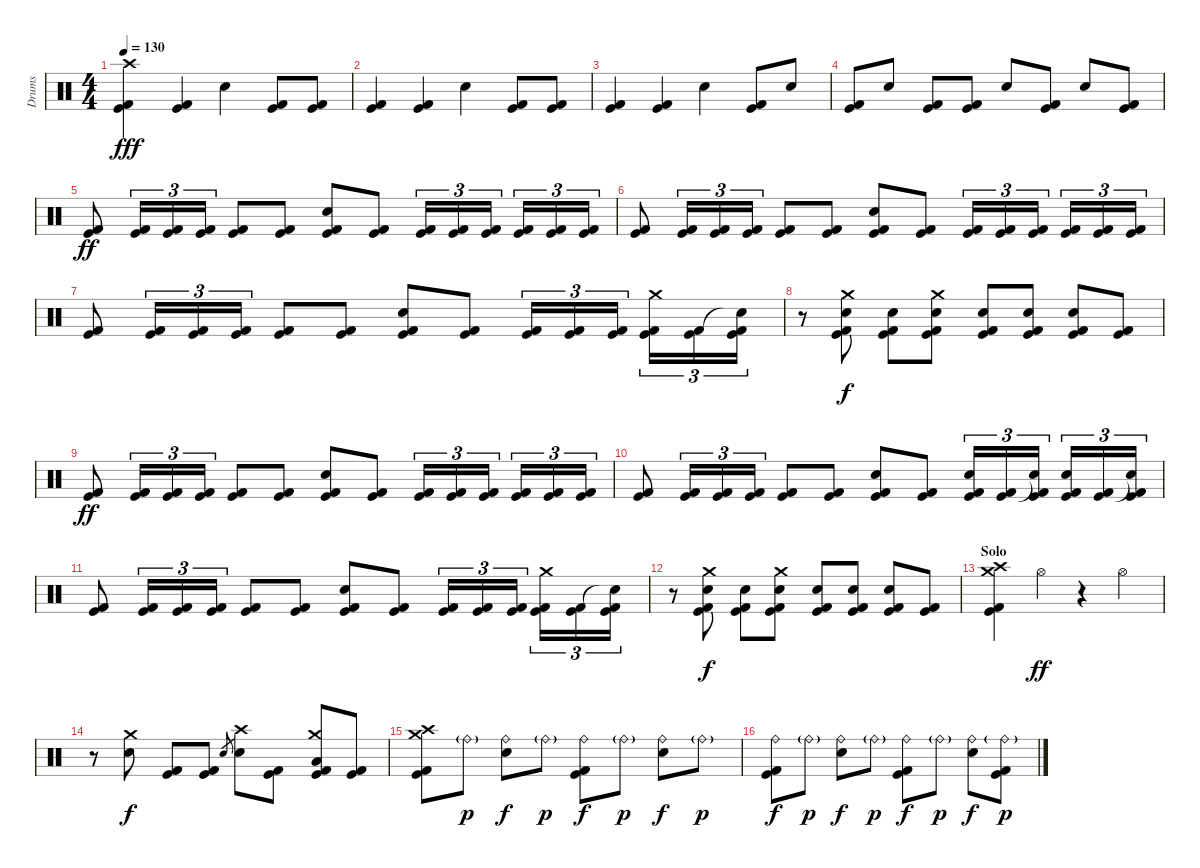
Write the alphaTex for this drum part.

\track ("Drums" "Drums") {instrument percussion}
\staff {score}
\articulation defaults
\ts (4 4)
\tempo 130
\clef neutral
\ks c
("Crash high (hit)" "Kick (hit)" "Kick (hit) 2").4{dy fff} ("Kick (hit)" "Kick (hit) 2").4 "Electric Snare (hit)".4 ("Kick (hit)" "Kick (hit) 2").8 ("Kick (hit)" "Kick (hit) 2").8 |
("Kick (hit)" "Kick (hit) 2").4 ("Kick (hit)" "Kick (hit) 2").4 "Electric Snare (hit)".4 ("Kick (hit)" "Kick (hit) 2").8 ("Kick (hit)" "Kick (hit) 2").8 |
("Kick (hit)" "Kick (hit) 2").4 ("Kick (hit)" "Kick (hit) 2").4 "Electric Snare (hit)".4 ("Kick (hit)" "Kick (hit) 2").8 "Electric Snare (hit)".8 |
("Kick (hit)" "Kick (hit) 2").8 "Electric Snare (hit)".8 ("Kick (hit)" "Kick (hit) 2").8 ("Kick (hit)" "Kick (hit) 2").8 "Electric Snare (hit)".8 ("Kick (hit)" "Kick (hit) 2").8 "Electric Snare (hit)".8 ("Kick (hit)" "Kick (hit) 2").8 |
("Kick (hit)" "Kick (hit) 2").8{dy ff} ("Kick (hit)" "Kick (hit) 2").16{tu (3 2)} ("Kick (hit)" "Kick (hit) 2").16{tu (3 2)} ("Kick (hit)" "Kick (hit) 2").16{tu (3 2)} ("Kick (hit)" "Kick (hit) 2").8 ("Kick (hit)" "Kick (hit) 2").8 ("Electric Snare (hit)" "Kick (hit)" "Kick (hit) 2").8 ("Kick (hit)" "Kick (hit) 2").8 ("Kick (hit)" "Kick (hit) 2").16{tu (3 2)} ("Kick (hit)" "Kick (hit) 2").16{tu (3 2)} ("Kick (hit)" "Kick (hit) 2").16{tu (3 2)} ("Kick (hit)" "Kick (hit) 2").16{tu (3 2)} ("Kick (hit)" "Kick (hit) 2").16{tu (3 2)} ("Kick (hit)" "Kick (hit) 2").16{tu (3 2)} |
("Kick (hit)" "Kick (hit) 2").8 ("Kick (hit)" "Kick (hit) 2").16{tu (3 2)} ("Kick (hit)" "Kick (hit) 2").16{tu (3 2)} ("Kick (hit)" "Kick (hit) 2").16{tu (3 2)} ("Kick (hit)" "Kick (hit) 2").8 ("Kick (hit)" "Kick (hit) 2").8 ("Electric Snare (hit)" "Kick (hit)" "Kick (hit) 2").8 ("Kick (hit)" "Kick (hit) 2").8 ("Kick (hit)" "Kick (hit) 2").16{tu (3 2)} ("Kick (hit)" "Kick (hit) 2").16{tu (3 2)} ("Kick (hit)" "Kick (hit) 2").16{tu (3 2)} ("Kick (hit)" "Kick (hit) 2").16{tu (3 2)} ("Kick (hit)" "Kick (hit) 2").16{tu (3 2)} ("Kick (hit)" "Kick (hit) 2").16{tu (3 2)} |
("Kick (hit)" "Kick (hit) 2").8 ("Kick (hit)" "Kick (hit) 2").16{tu (3 2)} ("Kick (hit)" "Kick (hit) 2").16{tu (3 2)} ("Kick (hit)" "Kick (hit) 2").16{tu (3 2)} ("Kick (hit)" "Kick (hit) 2").8 ("Kick (hit)" "Kick (hit) 2").8 ("Electric Snare (hit)" "Kick (hit)" "Kick (hit) 2").8 ("Kick (hit)" "Kick (hit) 2").8 ("Kick (hit)" "Kick (hit) 2").16{tu (3 2)} ("Kick (hit)" "Kick (hit) 2").16{tu (3 2)} ("Kick (hit)" "Kick (hit) 2").16{tu (3 2)} ("Crash medium (hit)" "Kick (hit)" "Kick (hit) 2").16{tu (3 2)} ("Kick (hit)" "Kick (hit) 2").16{tu (3 2)} ("Snare (hit)"{t} "Kick (hit)" "Kick (hit) 2").16{tu (3 2)} |
r.8 ("Crash medium (hit)" "Electric Snare (hit)" "Kick (hit)" "Kick (hit) 2").8{dy f} ("Electric Snare (hit)" "Kick (hit)" "Kick (hit) 2").8 ("Crash medium (hit)" "Electric Snare (hit)" "Kick (hit)" "Kick (hit) 2").8 ("Electric Snare (hit)" "Kick (hit)" "Kick (hit) 2").8 ("Electric Snare (hit)" "Kick (hit)" "Kick (hit) 2").8 ("Electric Snare (hit)" "Kick (hit)" "Kick (hit) 2").8 ("Kick (hit)" "Kick (hit) 2").8 |
("Kick (hit)" "Kick (hit) 2").8{dy ff} ("Kick (hit)" "Kick (hit) 2").16{tu (3 2)} ("Kick (hit)" "Kick (hit) 2").16{tu (3 2)} ("Kick (hit)" "Kick (hit) 2").16{tu (3 2)} ("Kick (hit)" "Kick (hit) 2").8 ("Kick (hit)" "Kick (hit) 2").8 ("Electric Snare (hit)" "Kick (hit)" "Kick (hit) 2").8 ("Kick (hit)" "Kick (hit) 2").8 ("Kick (hit)" "Kick (hit) 2").16{tu (3 2)} ("Kick (hit)" "Kick (hit) 2").16{tu (3 2)} ("Kick (hit)" "Kick (hit) 2").16{tu (3 2)} ("Kick (hit)" "Kick (hit) 2").16{tu (3 2)} ("Kick (hit)" "Kick (hit) 2").16{tu (3 2)} ("Kick (hit)" "Kick (hit) 2").16{tu (3 2)} |
("Kick (hit)" "Kick (hit) 2").8 ("Kick (hit)" "Kick (hit) 2").16{tu (3 2)} ("Kick (hit)" "Kick (hit) 2").16{tu (3 2)} ("Kick (hit)" "Kick (hit) 2").16{tu (3 2)} ("Kick (hit)" "Kick (hit) 2").8 ("Kick (hit)" "Kick (hit) 2").8 ("Electric Snare (hit)" "Kick (hit)" "Kick (hit) 2").8 ("Kick (hit)" "Kick (hit) 2").8 ("Electric Snare (hit)" "Kick (hit)" "Kick (hit) 2").16{tu (3 2)} ("Kick (hit)" "Kick (hit) 2").16{tu (3 2)} ("Snare (hit)"{t} "Kick (hit)" "Kick (hit) 2").16{tu (3 2)} ("Electric Snare (hit)" "Kick (hit)" "Kick (hit) 2").16{tu (3 2)} ("Kick (hit)" "Kick (hit) 2").16{tu (3 2)} ("Snare (hit)"{t} "Kick (hit)" "Kick (hit) 2").16{tu (3 2)} |
("Kick (hit)" "Kick (hit) 2").8 ("Kick (hit)" "Kick (hit) 2").16{tu (3 2)} ("Kick (hit)" "Kick (hit) 2").16{tu (3 2)} ("Kick (hit)" "Kick (hit) 2").16{tu (3 2)} ("Kick (hit)" "Kick (hit) 2").8 ("Kick (hit)" "Kick (hit) 2").8 ("Electric Snare (hit)" "Kick (hit)" "Kick (hit) 2").8 ("Kick (hit)" "Kick (hit) 2").8 ("Kick (hit)" "Kick (hit) 2").16{tu (3 2)} ("Kick (hit)" "Kick (hit) 2").16{tu (3 2)} ("Kick (hit)" "Kick (hit) 2").16{tu (3 2)} ("Crash medium (hit)" "Kick (hit)" "Kick (hit) 2").16{tu (3 2)} ("Kick (hit)" "Kick (hit) 2").16{tu (3 2)} ("Snare (hit)"{t} "Kick (hit)" "Kick (hit) 2").16{tu (3 2)} |
r.8 ("Crash medium (hit)" "Electric Snare (hit)" "Kick (hit)" "Kick (hit) 2").8{dy f} ("Electric Snare (hit)" "Kick (hit)" "Kick (hit) 2").8 ("Crash medium (hit)" "Electric Snare (hit)" "Kick (hit)" "Kick (hit) 2").8 ("Electric Snare (hit)" "Kick (hit)" "Kick (hit) 2").8 ("Electric Snare (hit)" "Kick (hit)" "Kick (hit) 2").8 ("Electric Snare (hit)" "Kick (hit)" "Kick (hit) 2").8 ("Kick (hit)" "Kick (hit) 2").8 |
\section ("" "Solo")
("Crash medium (hit)" "Crash high (hit)" "Kick (hit)" "Kick (hit) 2").4 "Hi-Hat (open)".4{dy ff} r.4 "Hi-Hat (open)".4 |
r.8 ("Crash medium (hit)" "Electric Snare (hit)").8{dy f} ("Kick (hit)" "Kick (hit) 2").8 ("Kick (hit)" "Kick (hit) 2").8 "Electric Snare (hit)".8{gr} ("Crash high (hit)" "Electric Snare (hit)").8 ("Kick (hit)" "Kick (hit) 2").8 ("Crash medium (hit)" "Low Floor Tom (hit)" "Kick (hit)" "Kick (hit) 2").8 ("Kick (hit)" "Kick (hit) 2").8 |
("Crash medium (hit)" "Crash high (hit)" "Kick (hit)" "Kick (hit) 2").8 "Ride (bell)"{g}.8{dy p} ("Ride (bell)" "Electric Snare (hit)").8{dy f} "Ride (bell)"{g}.8{dy p} ("Ride (bell)" "Kick (hit)" "Kick (hit) 2").8{dy f} "Ride (bell)"{g}.8{dy p} ("Ride (bell)" "Electric Snare (hit)").8{dy f} "Ride (bell)"{g}.8{dy p} |
("Ride (bell)" "Kick (hit)" "Kick (hit) 2").8{dy f} "Ride (bell)"{g}.8{dy p} ("Ride (bell)" "Electric Snare (hit)").8{dy f} "Ride (bell)"{g}.8{dy p} ("Ride (bell)" "Kick (hit)" "Kick (hit) 2").8{dy f} "Ride (bell)"{g}.8{dy p} ("Ride (bell)" "Electric Snare (hit)").8{dy f} ("Ride (bell)"{g} "Kick (hit)" "Kick (hit) 2").8{dy p}
